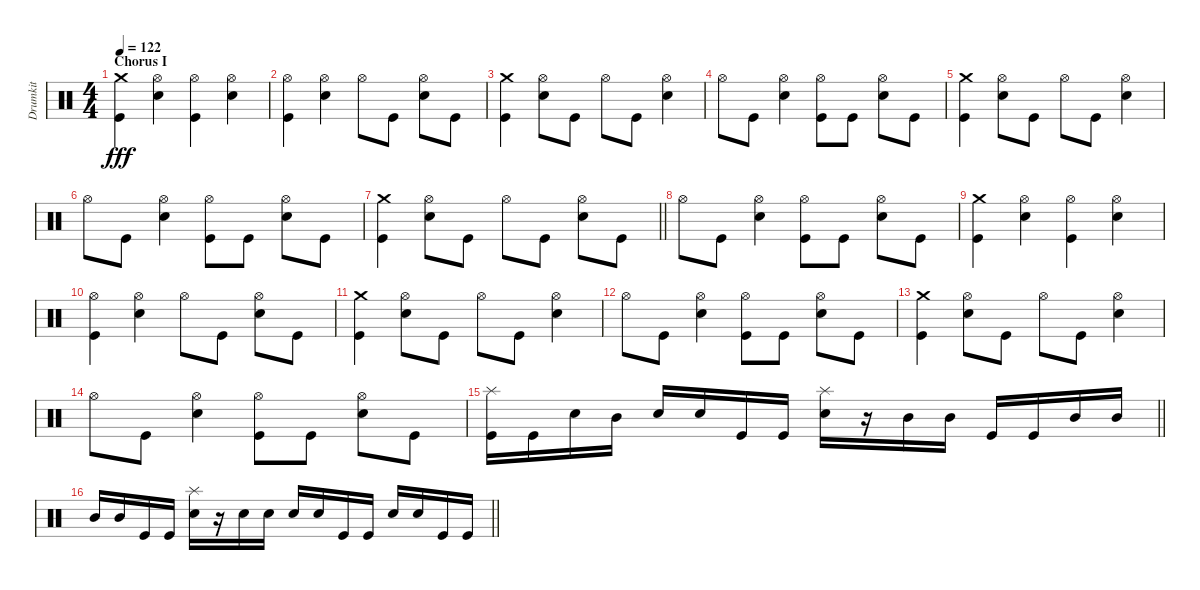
\track ("Drumkit" "Drumkit") {instrument percussion}
\staff {score}
\articulation defaults
\ts (4 4)
\section ("" "Chorus I")
\tempo 122
\clef neutral
\ks c
("Kick (hit)" "Crash medium (hit)").4{dy fff} ("Snare (hit) 2" "Hi-Hat (open)").4 ("Kick (hit)" "Hi-Hat (open)").4 ("Snare (hit) 2" "Hi-Hat (open)").4 |
("Kick (hit)" "Hi-Hat (open)").4 ("Snare (hit) 2" "Hi-Hat (open)").4 "Hi-Hat (open)".8 "Kick (hit)".8 ("Hi-Hat (open)" "Snare (hit) 2").8 "Kick (hit)".8 |
("Kick (hit)" "Crash medium (hit)").4 ("Snare (hit) 2" "Hi-Hat (open)").8 "Kick (hit)".8 "Hi-Hat (open)".8 "Kick (hit)".8 ("Snare (hit) 2" "Hi-Hat (open)").4 |
"Hi-Hat (open)".8 "Kick (hit)".8 ("Snare (hit) 2" "Hi-Hat (open)").4 ("Hi-Hat (open)" "Kick (hit)").8 "Kick (hit)".8 ("Hi-Hat (open)" "Snare (hit) 2").8 "Kick (hit)".8 |
("Kick (hit)" "Crash medium (hit)").4 ("Snare (hit) 2" "Hi-Hat (open)").8 "Kick (hit)".8 "Hi-Hat (open)".8 "Kick (hit)".8 ("Snare (hit) 2" "Hi-Hat (open)").4 |
"Hi-Hat (open)".8 "Kick (hit)".8 ("Snare (hit) 2" "Hi-Hat (open)").4 ("Hi-Hat (open)" "Kick (hit)").8 "Kick (hit)".8 ("Hi-Hat (open)" "Snare (hit) 2").8 "Kick (hit)".8 |
\barLineRight lightlight
("Kick (hit)" "Crash medium (hit)").4 ("Snare (hit) 2" "Hi-Hat (open)").8 "Kick (hit)".8 "Hi-Hat (open)".8 "Kick (hit)".8 ("Snare (hit) 2" "Hi-Hat (open)").8 "Kick (hit)".8 |
"Hi-Hat (open)".8 "Kick (hit)".8 ("Snare (hit) 2" "Hi-Hat (open)").4 ("Hi-Hat (open)" "Kick (hit)").8 "Kick (hit)".8 ("Hi-Hat (open)" "Snare (hit) 2").8 "Kick (hit)".8 |
("Kick (hit)" "Crash medium (hit)").4 ("Snare (hit) 2" "Hi-Hat (open)").4 ("Kick (hit)" "Hi-Hat (open)").4 ("Snare (hit) 2" "Hi-Hat (open)").4 |
("Kick (hit)" "Hi-Hat (open)").4 ("Snare (hit) 2" "Hi-Hat (open)").4 "Hi-Hat (open)".8 "Kick (hit)".8 ("Hi-Hat (open)" "Snare (hit) 2").8 "Kick (hit)".8 |
("Kick (hit)" "Crash medium (hit)").4 ("Snare (hit) 2" "Hi-Hat (open)").8 "Kick (hit)".8 "Hi-Hat (open)".8 "Kick (hit)".8 ("Snare (hit) 2" "Hi-Hat (open)").4 |
"Hi-Hat (open)".8 "Kick (hit)".8 ("Snare (hit) 2" "Hi-Hat (open)").4 ("Hi-Hat (open)" "Kick (hit)").8 "Kick (hit)".8 ("Hi-Hat (open)" "Snare (hit) 2").8 "Kick (hit)".8 |
("Kick (hit)" "Crash medium (hit)").4 ("Snare (hit) 2" "Hi-Hat (open)").8 "Kick (hit)".8 "Hi-Hat (open)".8 "Kick (hit)".8 ("Snare (hit) 2" "Hi-Hat (open)").4 |
"Hi-Hat (open)".8 "Kick (hit)".8 ("Snare (hit) 2" "Hi-Hat (open)").4 ("Hi-Hat (open)" "Kick (hit)").8 "Kick (hit)".8 ("Hi-Hat (open)" "Snare (hit) 2").8 "Kick (hit)".8 |
\barLineRight lightlight
("Kick (hit)" "Splash (hit)").16 "Kick (hit)".16 "Snare (hit) 2".16 "Mid Tom (hit)".16 "Snare (hit) 2".16 "Snare (hit) 2".16 "Kick (hit)".16 "Kick (hit)".16 ("Snare (hit) 2" "Splash (hit)").16 r.16 "Mid Tom (hit)".16 "Mid Tom (hit)".16 "Kick (hit)".16 "Kick (hit)".16 "Mid Tom (hit)".16 "Mid Tom (hit)".16 |
\barLineRight lightlight "Mid Tom (hit)".16 "Mid Tom (hit)".16 "Kick (hit)".16 "Kick (hit)".16
("Snare (hit) 2" "Splash (hit)").16 r.16 "Snare (hit) 2".16 "Snare (hit) 2".16 "Snare (hit) 2".16 "Snare (hit) 2".16 "Kick (hit)".16 "Kick (hit)".16 "Snare (hit) 2".16 "Snare (hit) 2".16 "Kick (hit)".16 "Kick (hit)".16
